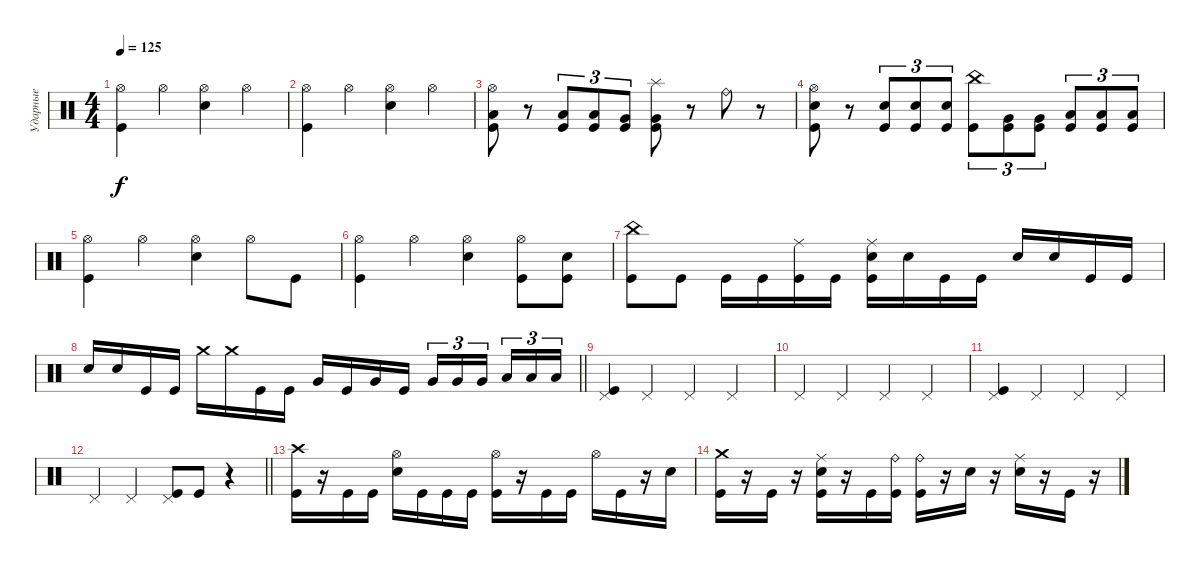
\track ("Ударные" "Ударные") {instrument percussion}
\staff {score}
\articulation defaults
\ts (4 4)
\tempo 125
\clef neutral
\ks c
("Hi-Hat (open)" "Kick (hit)").4{dy f} "Hi-Hat (open)".4 ("Hi-Hat (open)" "Electric Snare (hit)").4 "Hi-Hat (open)".4 |
("Hi-Hat (open)" "Kick (hit)").4 "Hi-Hat (open)".4 ("Hi-Hat (open)" "Electric Snare (hit)").4 "Hi-Hat (open)".4 |
("Hi-Hat (open)" "Low Tom (hit)" "Kick (hit)").8 r.8 ("Low Tom (hit)" "Kick (hit)").8{tu (3 2)} ("Low Tom (hit)" "Kick (hit)").8{tu (3 2)} ("Very Low Tom (hit)" "Kick (hit)").8{tu (3 2)} ("Splash (hit)" "Very Low Tom (hit)" "Kick (hit)").8 r.8 "Ride (bell)".8 r.8 |
("Hi-Hat (open)" "Electric Snare (hit)" "Kick (hit)").8 r.8 ("Electric Snare (hit)" "Kick (hit)").8{tu (3 2)} ("Electric Snare (hit)" "Kick (hit)").8{tu (3 2)} ("Electric Snare (hit)" "Kick (hit)").8{tu (3 2)} ("China (hit)" "Kick (hit)").8{tu (3 2)} ("Very Low Tom (hit)" "Kick (hit)").8{tu (3 2)} ("Very Low Tom (hit)" "Kick (hit)").8{tu (3 2)} ("Low Floor Tom (hit)" "Kick (hit)").8{tu (3 2)} ("Low Floor Tom (hit)" "Kick (hit)").8{tu (3 2)} ("Low Floor Tom (hit)" "Kick (hit)").8{tu (3 2)} |
("Hi-Hat (open)" "Kick (hit)").4 "Hi-Hat (open)".4 ("Hi-Hat (open)" "Electric Snare (hit)").4 "Hi-Hat (open)".8 "Kick (hit)".8 |
("Hi-Hat (open)" "Kick (hit)").4 "Hi-Hat (open)".4 ("Hi-Hat (open)" "Electric Snare (hit)").4 ("Hi-Hat (open)" "Kick (hit)").8 ("Electric Snare (hit)" "Kick (hit)").8 |
("China (hit)" "Kick (hit)").8 "Kick (hit)".8 "Kick (hit)".16 "Kick (hit)".16 ("Ride (middle)" "Kick (hit)").16 "Kick (hit)".16 ("Ride (middle)" "Electric Snare (hit)" "Kick (hit)").16 "Electric Snare (hit)".16 "Kick (hit)".16 "Kick (hit)".16 "Electric Snare (hit)".16 "Electric Snare (hit)".16 "Kick (hit)".16 "Kick (hit)".16 |
\barLineRight lightlight "Electric Snare (hit)".16 "Electric Snare (hit)".16 "Kick (hit)".16 "Kick (hit)".16 "Crash medium (hit)".16 "Crash medium (hit)".16 "Kick (hit)".16 "Kick (hit)".16 "Very Low Tom (hit)".16 "Kick (hit)".16 "Very Low Tom (hit)".16 "Kick (hit)".16 "Very Low Tom (hit)".16{tu (3 2)} "Very Low Tom (hit)".16{tu (3 2)} "Very Low Tom (hit)".16{tu (3 2) beam splitsecondary} "Low Floor Tom (hit)".16{tu (3 2)} "Low Floor Tom (hit)".16{tu (3 2)} "Low Floor Tom (hit)".16{tu (3 2)}
|
\section ("" " ")
("Pedal Hi-Hat (hit)" "Kick (hit)").4 "Pedal Hi-Hat (hit)".4 "Pedal Hi-Hat (hit)".4 "Pedal Hi-Hat (hit)".4 |
"Pedal Hi-Hat (hit)".4 "Pedal Hi-Hat (hit)".4 "Pedal Hi-Hat (hit)".4 "Pedal Hi-Hat (hit)".4 |
("Pedal Hi-Hat (hit)" "Kick (hit)").4 "Pedal Hi-Hat (hit)".4 "Pedal Hi-Hat (hit)".4 "Pedal Hi-Hat (hit)".4 |
\barLineRight lightlight "Pedal Hi-Hat (hit)".4 "Pedal Hi-Hat (hit)".4
("Pedal Hi-Hat (hit)" "Kick (hit)").8 "Kick (hit)".8 r.4 |
\section ("" " ")
("Crash high (hit)" "Kick (hit)").16 r.16 "Kick (hit)".16 "Kick (hit)".16 ("Hi-Hat (open)" "Electric Snare (hit)").16 "Kick (hit)".16 "Kick (hit)".16 "Kick (hit)".16 ("Hi-Hat (open)" "Kick (hit)").16 r.16 "Kick (hit)".16 "Kick (hit)".16 "Hi-Hat (open)".16 "Kick (hit)".16 r.16 "Electric Snare (hit)".16 |
("Crash medium (hit)" "Kick (hit)").16 r.16 "Kick (hit)".16 r.16 ("Ride (middle)" "Electric Snare (hit)" "Kick (hit)").16 r.16 "Kick (hit)".16 ("Ride (bell)" "Kick (hit)").16 ("Ride (bell)" "Kick (hit)").16 r.16 "Electric Snare (hit)".16 r.16 ("Ride (middle)" "Electric Snare (hit)").16 r.16 "Kick (hit)".16 r.16
